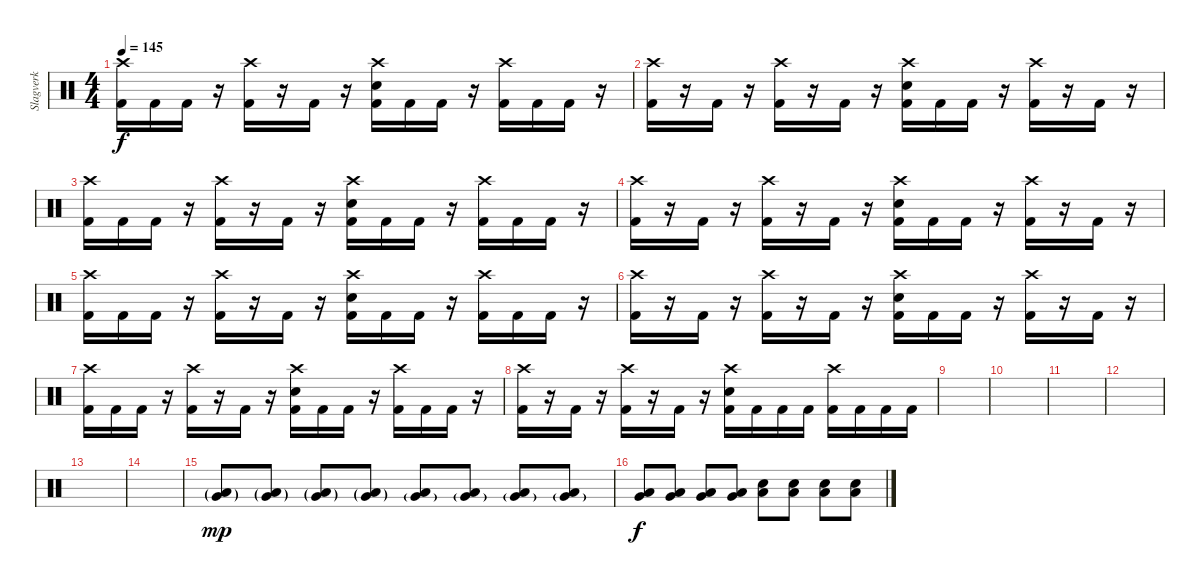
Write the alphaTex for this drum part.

\track ("Slagverk" "Slagverk") {instrument percussion}
\staff {score}
\articulation defaults
\ts (4 4)
\tempo 145
\clef neutral
\ks c
("Crash high (hit)" "Kick (hit) 2").16{dy f} "Kick (hit) 2".16 "Kick (hit) 2".16 r.16 ("Crash high (hit)" "Kick (hit) 2").16 r.16 "Kick (hit) 2".16 r.16 ("Crash high (hit)" "Kick (hit) 2" "Electric Snare (hit)").16 "Kick (hit) 2".16 "Kick (hit) 2".16 r.16 ("Crash high (hit)" "Kick (hit) 2").16 "Kick (hit) 2".16 "Kick (hit) 2".16 r.16 |
("Crash high (hit)" "Kick (hit) 2").16 r.16 "Kick (hit) 2".16 r.16 ("Crash high (hit)" "Kick (hit) 2").16 r.16 "Kick (hit) 2".16 r.16 ("Crash high (hit)" "Kick (hit) 2" "Electric Snare (hit)").16 "Kick (hit) 2".16 "Kick (hit) 2".16 r.16 ("Crash high (hit)" "Kick (hit) 2").16 r.16 "Kick (hit) 2".16 r.16 |
("Crash high (hit)" "Kick (hit) 2").16 "Kick (hit) 2".16 "Kick (hit) 2".16 r.16 ("Crash high (hit)" "Kick (hit) 2").16 r.16 "Kick (hit) 2".16 r.16 ("Crash high (hit)" "Kick (hit) 2" "Electric Snare (hit)").16 "Kick (hit) 2".16 "Kick (hit) 2".16 r.16 ("Crash high (hit)" "Kick (hit) 2").16 "Kick (hit) 2".16 "Kick (hit) 2".16 r.16 |
("Crash high (hit)" "Kick (hit) 2").16 r.16 "Kick (hit) 2".16 r.16 ("Crash high (hit)" "Kick (hit) 2").16 r.16 "Kick (hit) 2".16 r.16 ("Crash high (hit)" "Kick (hit) 2" "Electric Snare (hit)").16 "Kick (hit) 2".16 "Kick (hit) 2".16 r.16 ("Crash high (hit)" "Kick (hit) 2").16 r.16 "Kick (hit) 2".16 r.16 |
("Crash high (hit)" "Kick (hit) 2").16 "Kick (hit) 2".16 "Kick (hit) 2".16 r.16 ("Crash high (hit)" "Kick (hit) 2").16 r.16 "Kick (hit) 2".16 r.16 ("Crash high (hit)" "Kick (hit) 2" "Electric Snare (hit)").16 "Kick (hit) 2".16 "Kick (hit) 2".16 r.16 ("Crash high (hit)" "Kick (hit) 2").16 "Kick (hit) 2".16 "Kick (hit) 2".16 r.16 |
("Crash high (hit)" "Kick (hit) 2").16 r.16 "Kick (hit) 2".16 r.16 ("Crash high (hit)" "Kick (hit) 2").16 r.16 "Kick (hit) 2".16 r.16 ("Crash high (hit)" "Kick (hit) 2" "Electric Snare (hit)").16 "Kick (hit) 2".16 "Kick (hit) 2".16 r.16 ("Crash high (hit)" "Kick (hit) 2").16 r.16 "Kick (hit) 2".16 r.16 |
("Crash high (hit)" "Kick (hit) 2").16 "Kick (hit) 2".16 "Kick (hit) 2".16 r.16 ("Crash high (hit)" "Kick (hit) 2").16 r.16 "Kick (hit) 2".16 r.16 ("Crash high (hit)" "Kick (hit) 2" "Electric Snare (hit)").16 "Kick (hit) 2".16 "Kick (hit) 2".16 r.16 ("Crash high (hit)" "Kick (hit) 2").16 "Kick (hit) 2".16 "Kick (hit) 2".16 r.16 |
("Crash high (hit)" "Kick (hit) 2").16 r.16 "Kick (hit) 2".16 r.16 ("Crash high (hit)" "Kick (hit) 2").16 r.16 "Kick (hit) 2".16 r.16 ("Crash high (hit)" "Kick (hit) 2" "Electric Snare (hit)").16 "Kick (hit) 2".16 "Kick (hit) 2".16 "Kick (hit) 2".16 ("Crash high (hit)" "Kick (hit) 2").16 "Kick (hit) 2".16 "Kick (hit) 2".16 "Kick (hit) 2".16 |
|
|
|
|
|
|
("Very Low Tom (hit)"{g} "Low Floor Tom (hit)"{g}).8{dy mp} ("Very Low Tom (hit)"{g} "Low Floor Tom (hit)"{g}).8 ("Very Low Tom (hit)"{g} "Low Floor Tom (hit)"{g}).8 ("Very Low Tom (hit)"{g} "Low Floor Tom (hit)"{g}).8 ("Very Low Tom (hit)"{g} "Low Floor Tom (hit)").8 ("Very Low Tom (hit)"{g} "Low Floor Tom (hit)").8 ("Very Low Tom (hit)"{g} "Low Floor Tom (hit)").8 ("Very Low Tom (hit)"{g} "Low Floor Tom (hit)").8 |
("Very Low Tom (hit)" "Low Floor Tom (hit)").8{dy f} ("Very Low Tom (hit)" "Low Floor Tom (hit)").8 ("Very Low Tom (hit)" "Low Floor Tom (hit)").8 ("Very Low Tom (hit)" "Low Floor Tom (hit)").8 ("Electric Snare (hit)" "Low Floor Tom (hit)").8 ("Electric Snare (hit)" "Low Floor Tom (hit)").8 ("Electric Snare (hit)" "Low Floor Tom (hit)").8 ("Electric Snare (hit)" "Low Floor Tom (hit)").8
